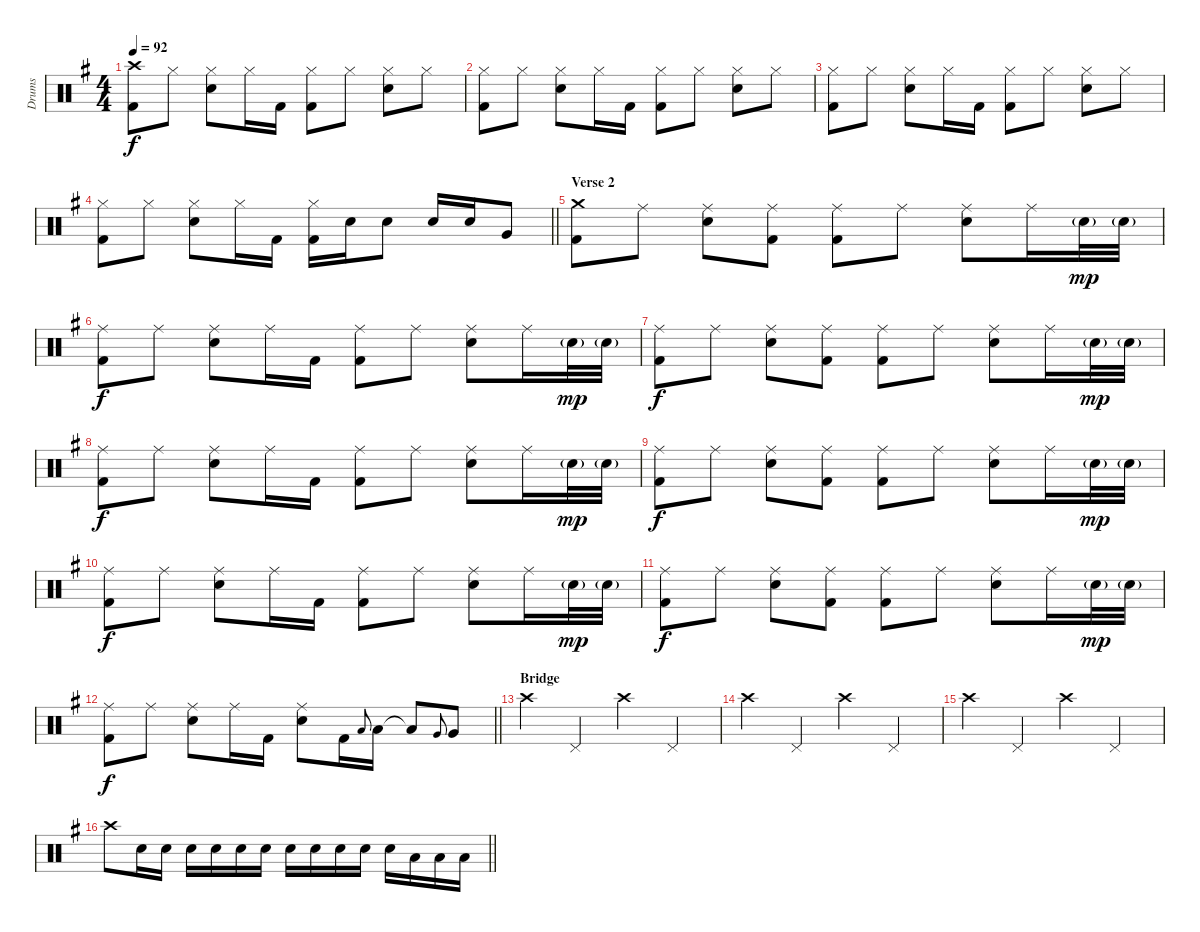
\track ("Drums" "Drums") {instrument percussion}
\staff {score}
\articulation defaults
\ts (4 4)
\tempo 92
\clef neutral
\ks eminor
("Crash high (hit)" "Kick (hit) 2").8{dy f} "Hi-Hat (closed)".8 ("Hi-Hat (closed)" "Electric Snare (hit)").8 "Hi-Hat (closed)".16 "Kick (hit) 2".16 ("Hi-Hat (closed)" "Kick (hit) 2").8 "Hi-Hat (closed)".8 ("Hi-Hat (closed)" "Electric Snare (hit)").8 "Hi-Hat (closed)".8 |
("Hi-Hat (closed)" "Kick (hit) 2").8 "Hi-Hat (closed)".8 ("Hi-Hat (closed)" "Electric Snare (hit)").8 "Hi-Hat (closed)".16 "Kick (hit) 2".16 ("Hi-Hat (closed)" "Kick (hit) 2").8 "Hi-Hat (closed)".8 ("Hi-Hat (closed)" "Electric Snare (hit)").8 "Hi-Hat (closed)".8 |
("Hi-Hat (closed)" "Kick (hit) 2").8 "Hi-Hat (closed)".8 ("Hi-Hat (closed)" "Electric Snare (hit)").8 "Hi-Hat (closed)".16 "Kick (hit) 2".16 ("Hi-Hat (closed)" "Kick (hit) 2").8 "Hi-Hat (closed)".8 ("Hi-Hat (closed)" "Electric Snare (hit)").8 "Hi-Hat (closed)".8 |
\barLineRight lightlight
("Hi-Hat (closed)" "Kick (hit) 2").8 "Hi-Hat (closed)".8 ("Hi-Hat (closed)" "Electric Snare (hit)").8 "Hi-Hat (closed)".16 "Kick (hit) 2".16 ("Hi-Hat (closed)" "Kick (hit) 2").16 "Electric Snare (hit)".16 "Electric Snare (hit)".8 "Electric Snare (hit)".16 "Electric Snare (hit)".16 "Very Low Tom (hit)".8 |
\section ("" "Verse 2")
("Crash medium (hit)" "Kick (hit) 2").8 "Ride (middle)".8 ("Ride (middle)" "Electric Snare (hit)").8 ("Ride (middle)" "Kick (hit) 2").8 ("Ride (middle)" "Kick (hit) 2").8 "Ride (middle)".8 ("Ride (middle)" "Electric Snare (hit)").8 "Ride (middle)".16 "Electric Snare (hit)"{g}.32{dy mp} "Electric Snare (hit)"{g}.32 |
("Ride (middle)" "Kick (hit) 2").8{dy f} "Ride (middle)".8 ("Ride (middle)" "Electric Snare (hit)").8 "Ride (middle)".16 "Kick (hit) 2".16 ("Ride (middle)" "Kick (hit) 2").8 "Ride (middle)".8 ("Ride (middle)" "Electric Snare (hit)").8 "Ride (middle)".16 "Electric Snare (hit)"{g}.32{dy mp} "Electric Snare (hit)"{g}.32 |
("Ride (middle)" "Kick (hit) 2").8{dy f} "Ride (middle)".8 ("Ride (middle)" "Electric Snare (hit)").8 ("Ride (middle)" "Kick (hit) 2").8 ("Ride (middle)" "Kick (hit) 2").8 "Ride (middle)".8 ("Ride (middle)" "Electric Snare (hit)").8 "Ride (middle)".16 "Electric Snare (hit)"{g}.32{dy mp} "Electric Snare (hit)"{g}.32 |
("Ride (middle)" "Kick (hit) 2").8{dy f} "Ride (middle)".8 ("Ride (middle)" "Electric Snare (hit)").8 "Ride (middle)".16 "Kick (hit) 2".16 ("Ride (middle)" "Kick (hit) 2").8 "Ride (middle)".8 ("Ride (middle)" "Electric Snare (hit)").8 "Ride (middle)".16 "Electric Snare (hit)"{g}.32{dy mp} "Electric Snare (hit)"{g}.32 |
("Ride (middle)" "Kick (hit) 2").8{dy f} "Ride (middle)".8 ("Ride (middle)" "Electric Snare (hit)").8 ("Ride (middle)" "Kick (hit) 2").8 ("Ride (middle)" "Kick (hit) 2").8 "Ride (middle)".8 ("Ride (middle)" "Electric Snare (hit)").8 "Ride (middle)".16 "Electric Snare (hit)"{g}.32{dy mp} "Electric Snare (hit)"{g}.32 |
("Ride (middle)" "Kick (hit) 2").8{dy f} "Ride (middle)".8 ("Ride (middle)" "Electric Snare (hit)").8 "Ride (middle)".16 "Kick (hit) 2".16 ("Ride (middle)" "Kick (hit) 2").8 "Ride (middle)".8 ("Ride (middle)" "Electric Snare (hit)").8 "Ride (middle)".16 "Electric Snare (hit)"{g}.32{dy mp} "Electric Snare (hit)"{g}.32 |
("Ride (middle)" "Kick (hit) 2").8{dy f} "Ride (middle)".8 ("Ride (middle)" "Electric Snare (hit)").8 ("Ride (middle)" "Kick (hit) 2").8 ("Ride (middle)" "Kick (hit) 2").8 "Ride (middle)".8 ("Ride (middle)" "Electric Snare (hit)").8 "Ride (middle)".16 "Electric Snare (hit)"{g}.32{dy mp} "Electric Snare (hit)"{g}.32 |
\barLineRight lightlight
("Ride (middle)" "Kick (hit) 2").8{dy f} "Ride (middle)".8 ("Ride (middle)" "Electric Snare (hit)").8 "Ride (middle)".16 "Kick (hit) 2".16 ("Ride (middle)" "Electric Snare (hit)").8 "Kick (hit) 2".16 "Low Tom (hit)".8{gr onbeat} "Low Tom (hit)".16 "Low Tom (hit)"{t}.8 "Very Low Tom (hit)".8{gr onbeat} "Very Low Tom (hit)".8 |
\section ("" "Bridge")
"Crash high (hit)".4 "Pedal Hi-Hat (hit)".4 "Crash high (hit)".4 "Pedal Hi-Hat (hit)".4 |
"Crash high (hit)".4 "Pedal Hi-Hat (hit)".4 "Crash high (hit)".4 "Pedal Hi-Hat (hit)".4 |
"Crash high (hit)".4 "Pedal Hi-Hat (hit)".4 "Crash high (hit)".4 "Pedal Hi-Hat (hit)".4 |
\barLineRight lightlight "Crash high (hit)".8 "Electric Snare (hit)".16 "Electric Snare (hit)".16 "Electric Snare (hit)".16 "Electric Snare (hit)".16 "Electric Snare (hit)".16 "Electric Snare (hit)".16 "Electric Snare (hit)".16 "Electric Snare (hit)".16 "Electric Snare (hit)".16 "Electric Snare (hit)".16 "Electric Snare (hit)".16 "Low Floor Tom (hit)".16 "Low Floor Tom (hit)".16 "Low Floor Tom (hit)".16
